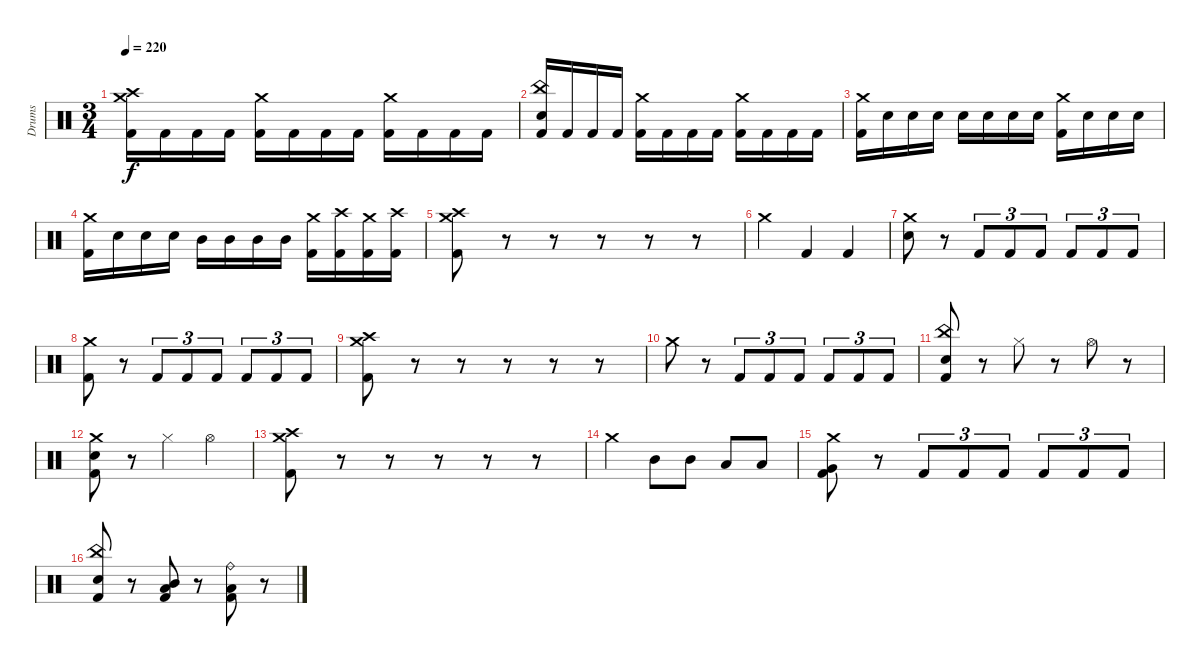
\track ("Drums" "Drums") {instrument percussion}
\staff
\articulation defaults
\ts (3 4)
\tempo 220
\clef neutral
\ks c
("Crash high (hit)" "Crash medium (hit)" "Kick (hit) 2").16{dy f} "Kick (hit) 2".16 "Kick (hit) 2".16 "Kick (hit) 2".16 ("Crash medium (hit)" "Kick (hit) 2").16 "Kick (hit) 2".16 "Kick (hit) 2".16 "Kick (hit) 2".16 ("Crash medium (hit)" "Kick (hit) 2").16 "Kick (hit) 2".16 "Kick (hit) 2".16 "Kick (hit) 2".16 |
("China (hit)" "Electric Snare (hit)" "Kick (hit) 2").16 "Kick (hit) 2".16 "Kick (hit) 2".16 "Kick (hit) 2".16 ("Crash medium (hit)" "Kick (hit) 2").16 "Kick (hit) 2".16 "Kick (hit) 2".16 "Kick (hit) 2".16 ("Crash medium (hit)" "Kick (hit) 2").16 "Kick (hit) 2".16 "Kick (hit) 2".16 "Kick (hit) 2".16 |
("Crash medium (hit)" "Kick (hit) 2").16 "Electric Snare (hit)".16 "Electric Snare (hit)".16 "Electric Snare (hit)".16 "Electric Snare (hit)".16 "Electric Snare (hit)".16 "Electric Snare (hit)".16 "Electric Snare (hit)".16 ("Crash medium (hit)" "Kick (hit) 2").16 "Electric Snare (hit)".16 "Electric Snare (hit)".16 "Electric Snare (hit)".16 |
("Crash medium (hit)" "Kick (hit) 2").16 "Electric Snare (hit)".16 "Electric Snare (hit)".16 "Electric Snare (hit)".16 "Mid Tom (hit)".16 "Mid Tom (hit)".16 "Mid Tom (hit)".16 "Mid Tom (hit)".16 ("Crash medium (hit)" "Kick (hit) 2").16 ("Crash high (hit)" "Kick (hit) 2").16 ("Crash medium (hit)" "Kick (hit) 2").16 ("Crash high (hit)" "Kick (hit) 2").16 |
("Crash medium (hit)" "Crash high (hit)" "Kick (hit) 2").8 r.8 r.8 r.8 r.8 r.8 |
"Crash medium (hit)".4 "Kick (hit) 2".4 "Kick (hit) 2".4 |
("Crash medium (hit)" "Electric Snare (hit)").8 r.8 "Kick (hit) 2".8{tu (3 2)} "Kick (hit) 2".8{tu (3 2)} "Kick (hit) 2".8{tu (3 2)} "Kick (hit) 2".8{tu (3 2)} "Kick (hit) 2".8{tu (3 2)} "Kick (hit) 2".8{tu (3 2)} |
("Crash medium (hit)" "Kick (hit) 2").8 r.8 "Kick (hit) 2".8{tu (3 2)} "Kick (hit) 2".8{tu (3 2)} "Kick (hit) 2".8{tu (3 2)} "Kick (hit) 2".8{tu (3 2)} "Kick (hit) 2".8{tu (3 2)} "Kick (hit) 2".8{tu (3 2)} |
("Crash medium (hit)" "Crash high (hit)" "Kick (hit) 2").8 r.8 r.8 r.8 r.8 r.8 |
"Crash medium (hit)".8 r.8 "Kick (hit) 2".8{tu (3 2)} "Kick (hit) 2".8{tu (3 2)} "Kick (hit) 2".8{tu (3 2)} "Kick (hit) 2".8{tu (3 2)} "Kick (hit) 2".8{tu (3 2)} "Kick (hit) 2".8{tu (3 2)} |
("China (hit)" "Electric Snare (hit)" "Kick (hit) 2").8 r.8 "Hi-Hat (closed)".8 r.8 "Hi-Hat (open)".8 r.8 |
("Crash medium (hit)" "Electric Snare (hit)" "Kick (hit) 2").8 r.8 "Hi-Hat (closed)".4 "Hi-Hat (open)".4 |
("Crash medium (hit)" "Crash high (hit)" "Kick (hit) 2").8 r.8 r.8 r.8 r.8 r.8 |
"Crash medium (hit)".4 "Mid Tom (hit)".8 "Mid Tom (hit)".8 "Low Tom (hit)".8 "Low Tom (hit)".8 |
("Crash medium (hit)" "Very Low Tom (hit)" "Kick (hit) 2").8 r.8 "Kick (hit) 2".8{tu (3 2)} "Kick (hit) 2".8{tu (3 2)} "Kick (hit) 2".8{tu (3 2)} "Kick (hit) 2".8{tu (3 2)} "Kick (hit) 2".8{tu (3 2)} "Kick (hit) 2".8{tu (3 2)} |
("China (hit)" "Electric Snare (hit)" "Kick (hit) 2").8 r.8 ("Mid Tom (hit)" "Low Tom (hit)" "Kick (hit) 2").8 r.8 ("Ride (bell)" "Low Tom (hit)" "Kick (hit) 2").8 r.8
